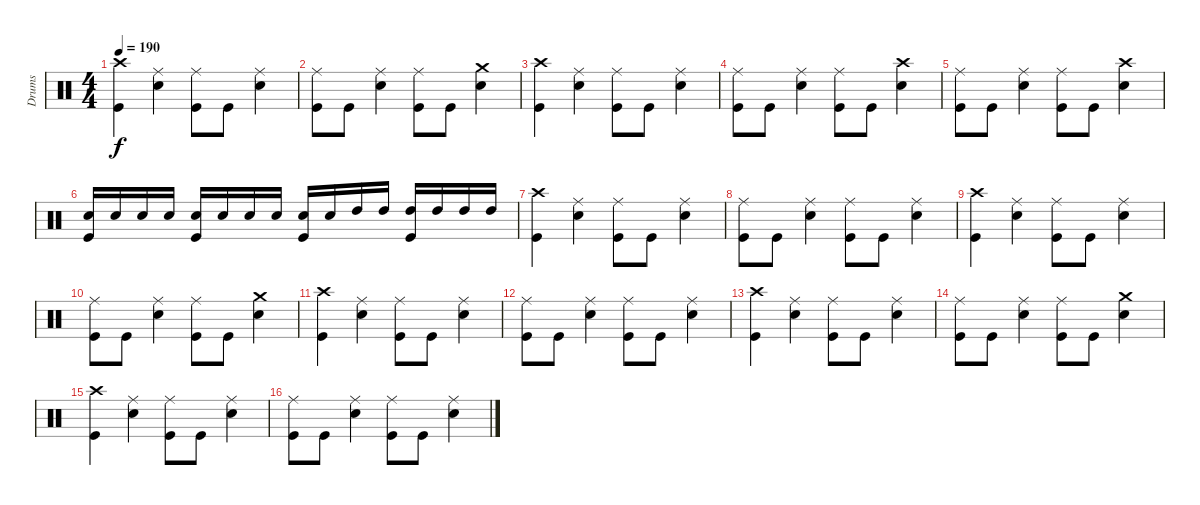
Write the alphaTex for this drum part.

\track ("Drums" "Drums") {instrument percussion}
\staff {score}
\articulation defaults
\ts (4 4)
\tempo 190
\clef neutral
\ks c
("Crash high (hit)" "Kick (hit)").4{dy f} ("Electric Snare (hit)" "Ride (middle)").4 ("Kick (hit)" "Ride (middle)").8 "Kick (hit)".8 ("Electric Snare (hit)" "Ride (middle)").4 |
("Kick (hit)" "Ride (middle)").8 "Kick (hit)".8 ("Electric Snare (hit)" "Ride (middle)").4 ("Kick (hit)" "Ride (middle)").8 "Kick (hit)".8 ("Electric Snare (hit)" "Crash medium (hit)").4 |
("Kick (hit)" "Crash high (hit)").4 ("Electric Snare (hit)" "Ride (middle)").4 ("Kick (hit)" "Ride (middle)").8 "Kick (hit)".8 ("Electric Snare (hit)" "Ride (middle)").4 |
("Kick (hit)" "Ride (middle)").8 "Kick (hit)".8 ("Electric Snare (hit)" "Ride (middle)").4 ("Kick (hit)" "Ride (middle)").8 "Kick (hit)".8 ("Electric Snare (hit)" "Crash high (hit)").4 |
("Kick (hit)" "Ride (middle)").8 "Kick (hit)".8 ("Electric Snare (hit)" "Ride (middle)").4 ("Kick (hit)" "Ride (middle)").8 "Kick (hit)".8 ("Electric Snare (hit)" "Crash high (hit)").4 |
("Kick (hit)" "Electric Snare (hit)").16 "Electric Snare (hit)".16 "Electric Snare (hit)".16 "Electric Snare (hit)".16 ("Kick (hit)" "Electric Snare (hit)").16 "Electric Snare (hit)".16 "Electric Snare (hit)".16 "Electric Snare (hit)".16 ("Kick (hit)" "Electric Snare (hit)").16 "Electric Snare (hit)".16 "High Tom (hit)".16 "High Tom (hit)".16 ("Kick (hit)" "High Tom (hit)").16 "High Tom (hit)".16 "High Tom (hit)".16 "High Tom (hit)".16 |
("Crash high (hit)" "Kick (hit)").4 ("Electric Snare (hit)" "Ride (middle)").4 ("Kick (hit)" "Ride (middle)").8 "Kick (hit)".8 ("Electric Snare (hit)" "Ride (middle)").4 |
("Kick (hit)" "Ride (middle)").8 "Kick (hit)".8 ("Electric Snare (hit)" "Ride (middle)").4 ("Kick (hit)" "Ride (middle)").8 "Kick (hit)".8 ("Electric Snare (hit)" "Ride (middle)").4 |
("Crash high (hit)" "Kick (hit)").4 ("Electric Snare (hit)" "Ride (middle)").4 ("Kick (hit)" "Ride (middle)").8 "Kick (hit)".8 ("Electric Snare (hit)" "Ride (middle)").4 |
("Kick (hit)" "Ride (middle)").8 "Kick (hit)".8 ("Electric Snare (hit)" "Ride (middle)").4 ("Kick (hit)" "Ride (middle)").8 "Kick (hit)".8 ("Electric Snare (hit)" "Crash medium (hit)").4 |
("Crash high (hit)" "Kick (hit)").4 ("Electric Snare (hit)" "Ride (middle)").4 ("Kick (hit)" "Ride (middle)").8 "Kick (hit)".8 ("Electric Snare (hit)" "Ride (middle)").4 |
("Kick (hit)" "Ride (middle)").8 "Kick (hit)".8 ("Electric Snare (hit)" "Ride (middle)").4 ("Kick (hit)" "Ride (middle)").8 "Kick (hit)".8 ("Electric Snare (hit)" "Ride (middle)").4 |
("Crash high (hit)" "Kick (hit)").4 ("Electric Snare (hit)" "Ride (middle)").4 ("Kick (hit)" "Ride (middle)").8 "Kick (hit)".8 ("Electric Snare (hit)" "Ride (middle)").4 |
("Kick (hit)" "Ride (middle)").8 "Kick (hit)".8 ("Electric Snare (hit)" "Ride (middle)").4 ("Kick (hit)" "Ride (middle)").8 "Kick (hit)".8 ("Electric Snare (hit)" "Crash medium (hit)").4 |
("Crash high (hit)" "Kick (hit)").4 ("Electric Snare (hit)" "Ride (middle)").4 ("Kick (hit)" "Ride (middle)").8 "Kick (hit)".8 ("Electric Snare (hit)" "Ride (middle)").4 |
("Kick (hit)" "Ride (middle)").8 "Kick (hit)".8 ("Electric Snare (hit)" "Ride (middle)").4 ("Kick (hit)" "Ride (middle)").8 "Kick (hit)".8 ("Electric Snare (hit)" "Ride (middle)").4
